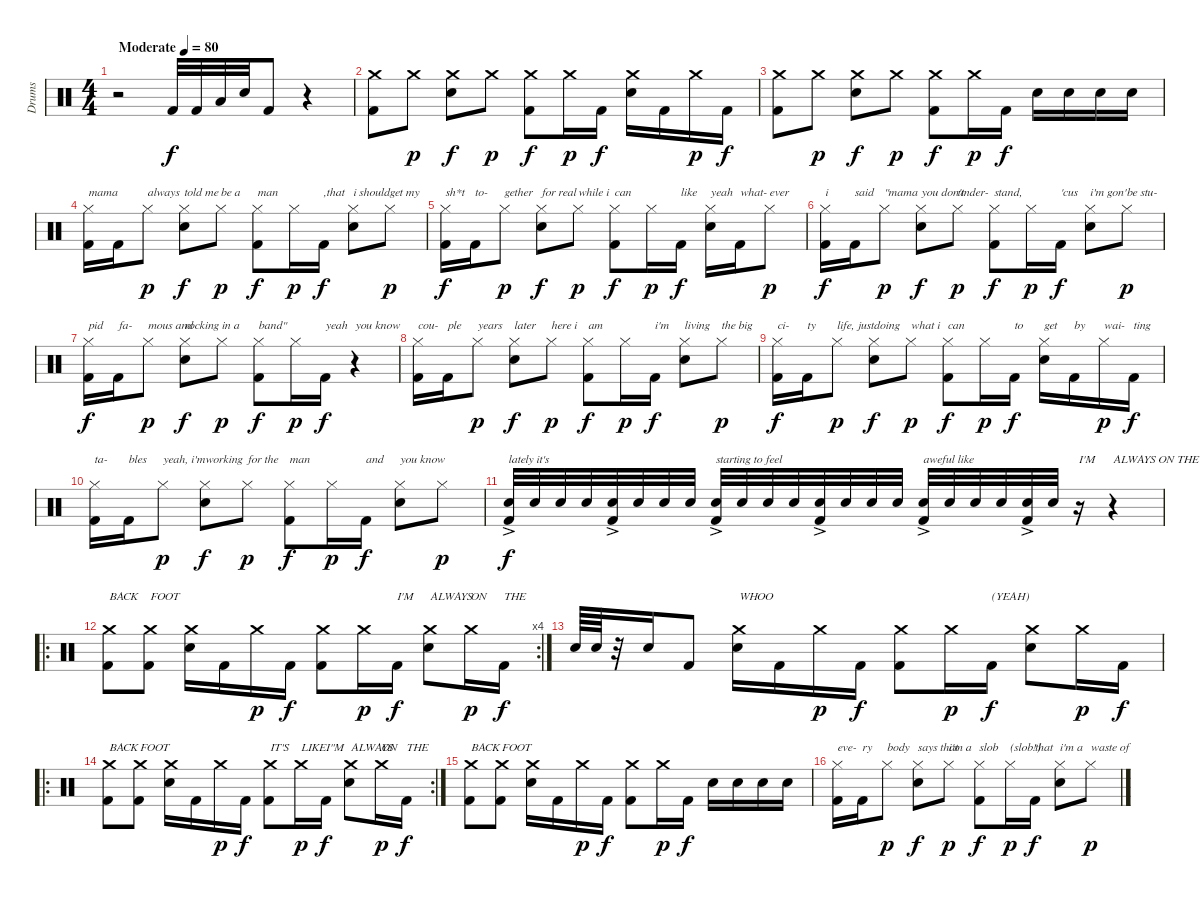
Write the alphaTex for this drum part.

\track ("Drums" "Drums") {instrument percussion}
\staff {score}
\articulation defaults
\ts (4 4)
\tempo (80 "Moderate")
\clef neutral
\ks c
r.2{dy f} "Kick (hit) 2".32 "Kick (hit) 2".32 "Low Floor Tom (hit)".32 "Snare (hit) 2".32 "Kick (hit) 2".8 r.4 |
("Crash medium (hit)" "Kick (hit) 2").8 "Crash medium (hit)".8{dy p} ("Crash medium (hit)" "Snare (hit) 2").8{dy f} "Crash medium (hit)".8{dy p} ("Crash medium (hit)" "Kick (hit) 2").8{dy f} "Crash medium (hit)".16{dy p} "Kick (hit) 2".16{dy f} ("Crash medium (hit)" "Snare (hit) 2").16 "Kick (hit) 2".16 "Crash medium (hit)".16{dy p} "Kick (hit) 2".16{dy f} |
("Crash medium (hit)" "Kick (hit) 2").8 "Crash medium (hit)".8{dy p} ("Crash medium (hit)" "Snare (hit) 2").8{dy f} "Crash medium (hit)".8{dy p} ("Crash medium (hit)" "Kick (hit) 2").8{dy f} "Crash medium (hit)".16{dy p} "Kick (hit) 2".16{dy f} "Snare (hit) 2".16 "Snare (hit) 2".16 "Snare (hit) 2".16 "Snare (hit) 2".16 |
("Hi-Hat (closed)" "Kick (hit) 2").16{txt "mama"} "Kick (hit) 2".16 "Hi-Hat (closed)".8{txt "always" dy p} ("Hi-Hat (closed)" "Snare (hit) 2").8{txt "told me" dy f} "Hi-Hat (closed)".8{txt "be a" dy p} ("Hi-Hat (closed)" "Kick (hit) 2").8{txt "man" dy f} "Hi-Hat (closed)".16{dy p} "Kick (hit) 2".16{txt ",that" dy f} ("Hi-Hat (closed)" "Snare (hit) 2").8{txt "i should"} "Hi-Hat (closed)".8{txt "get my" dy p} |
("Hi-Hat (closed)" "Kick (hit) 2").16{txt "sh*t" dy f} "Kick (hit) 2".16{txt "to-"} "Hi-Hat (closed)".8{txt "gether" dy p} ("Hi-Hat (closed)" "Snare (hit) 2").8{txt "for real" dy f} "Hi-Hat (closed)".8{txt "while i" dy p} ("Hi-Hat (closed)" "Kick (hit) 2").8{txt "can" dy f} "Hi-Hat (closed)".16{dy p} "Kick (hit) 2".16{txt "like" dy f} ("Hi-Hat (closed)" "Snare (hit) 2").16{txt "yeah"} "Kick (hit) 2".16{txt "what-"} "Hi-Hat (closed)".8{txt "ever" dy p} |
("Hi-Hat (closed)" "Kick (hit) 2").16{txt "i" dy f} "Kick (hit) 2".16{txt "said"} "Hi-Hat (closed)".8{txt "\"mama" dy p} ("Hi-Hat (closed)" "Snare (hit) 2").8{txt "you don't" dy f} "Hi-Hat (closed)".8{txt "under-" dy p} ("Hi-Hat (closed)" "Kick (hit) 2").8{txt "stand," dy f} "Hi-Hat (closed)".16{dy p} "Kick (hit) 2".16{txt "'cus" dy f} ("Hi-Hat (closed)" "Snare (hit) 2").8{txt "i'm gon'"} "Hi-Hat (closed)".8{txt "be stu-" dy p} |
("Hi-Hat (closed)" "Kick (hit) 2").16{txt "pid" dy f} "Kick (hit) 2".16{txt "fa-"} "Hi-Hat (closed)".8{txt "mous and" dy p} ("Hi-Hat (closed)" "Snare (hit) 2").8{txt "rocking" dy f} "Hi-Hat (closed)".8{txt "in a" dy p} ("Hi-Hat (closed)" "Kick (hit) 2").8{txt "band\"" dy f} "Hi-Hat (closed)".16{dy p} "Kick (hit) 2".16{txt "yeah" dy f} r.4{txt "you know"} |
("Hi-Hat (closed)" "Kick (hit) 2").16{txt "cou-"} "Kick (hit) 2".16{txt "ple"} "Hi-Hat (closed)".8{txt "years" dy p} ("Hi-Hat (closed)" "Snare (hit) 2").8{txt "later" dy f} "Hi-Hat (closed)".8{txt "here i" dy p} ("Hi-Hat (closed)" "Kick (hit) 2").8{txt "am" dy f} "Hi-Hat (closed)".16{dy p} "Kick (hit) 2".16{txt "i'm" dy f} ("Hi-Hat (closed)" "Snare (hit) 2").8{txt "living"} "Hi-Hat (closed)".8{txt "the big" dy p} |
("Hi-Hat (closed)" "Kick (hit) 2").16{txt "ci-" dy f} "Kick (hit) 2".16{txt "ty"} "Hi-Hat (closed)".8{txt "life, just" dy p} ("Hi-Hat (closed)" "Snare (hit) 2").8{txt "doing" dy f} "Hi-Hat (closed)".8{txt "what i" dy p} ("Hi-Hat (closed)" "Kick (hit) 2").8{txt "can" dy f} "Hi-Hat (closed)".16{dy p} "Kick (hit) 2".16{txt "to" dy f} ("Hi-Hat (closed)" "Snare (hit) 2").16{txt "get"} "Kick (hit) 2".16{txt "by"} "Hi-Hat (closed)".16{txt "wai-" dy p} "Kick (hit) 2".16{txt "ting" dy f} |
("Hi-Hat (closed)" "Kick (hit) 2").16{txt "ta-"} "Kick (hit) 2".16{txt "bles"} "Hi-Hat (closed)".8{txt "yeah, i'm" dy p} ("Hi-Hat (closed)" "Snare (hit) 2").8{txt "working" dy f} "Hi-Hat (closed)".8{txt "for the" dy p} ("Hi-Hat (closed)" "Kick (hit) 2").8{txt "man" dy f} "Hi-Hat (closed)".16{dy p} "Kick (hit) 2".16{txt "and" dy f} ("Hi-Hat (closed)" "Snare (hit) 2").8{txt "you know"} "Hi-Hat (closed)".8{dy p} |
("Snare (hit) 2"{ac} "Kick (hit) 2").32{txt "lately it's" dy f} "Snare (hit) 2".32 "Snare (hit) 2".32 "Snare (hit) 2".32 ("Snare (hit) 2"{ac} "Kick (hit) 2").32 "Snare (hit) 2".32 "Snare (hit) 2".32 "Snare (hit) 2".32 ("Snare (hit) 2"{ac} "Kick (hit) 2").32{txt "starting to feel"} "Snare (hit) 2".32 "Snare (hit) 2".32 "Snare (hit) 2".32 ("Snare (hit) 2"{ac} "Kick (hit) 2").32 "Snare (hit) 2".32 "Snare (hit) 2".32 "Snare (hit) 2".32 ("Snare (hit) 2"{ac} "Kick (hit) 2").32{txt "aweful like"} "Snare (hit) 2".32 "Snare (hit) 2".32 "Snare (hit) 2".32 ("Snare (hit) 2"{ac} "Kick (hit) 2").32 "Snare (hit) 2".32 r.16{txt "I'M"} r.4{txt "ALWAYS ON THE"} |
\ro
\rc 4
("Crash medium (hit)" "Kick (hit) 2").8{txt "BACK"} ("Crash medium (hit)" "Kick (hit) 2").8{txt "FOOT"} ("Crash medium (hit)" "Snare (hit) 2").16 "Kick (hit) 2".16 "Crash medium (hit)".16{dy p} "Kick (hit) 2".16{dy f} ("Crash medium (hit)" "Kick (hit) 2").8 "Crash medium (hit)".16{dy p} "Kick (hit) 2".16{txt "I'M" dy f} ("Crash medium (hit)" "Snare (hit) 2").8{txt "ALWAYS"} "Crash medium (hit)".16{txt "ON" dy p} "Kick (hit) 2".16{txt "THE" dy f} |
"Snare (hit) 2".64 "Snare (hit) 2".64 r.32 "Snare (hit) 2".16 "Kick (hit) 2".8 ("Crash medium (hit)" "Snare (hit) 2").16{txt "WHOO"} "Kick (hit) 2".16 "Crash medium (hit)".16{dy p} "Kick (hit) 2".16{dy f} ("Crash medium (hit)" "Kick (hit) 2").8 "Crash medium (hit)".16{dy p} "Kick (hit) 2".16{txt "(YEAH)" dy f} ("Crash medium (hit)" "Snare (hit) 2").8 "Crash medium (hit)".16{dy p} "Kick (hit) 2".16{dy f} |
\ro
\rc 2
("Crash medium (hit)" "Kick (hit) 2").8{txt "BACK"} ("Crash medium (hit)" "Kick (hit) 2").8{txt "FOOT"} ("Crash medium (hit)" "Snare (hit) 2").16 "Kick (hit) 2".16 "Crash medium (hit)".16{dy p} "Kick (hit) 2".16{dy f} ("Crash medium (hit)" "Kick (hit) 2").8{txt "IT'S"} "Crash medium (hit)".16{txt "LIKE" dy p} "Kick (hit) 2".16{txt "I\"M" dy f} ("Crash medium (hit)" "Snare (hit) 2").8{txt "ALWAYS"} "Crash medium (hit)".16{txt "ON" dy p} "Kick (hit) 2".16{txt "THE" dy f} |
("Crash medium (hit)" "Kick (hit) 2").8{txt "BACK"} ("Crash medium (hit)" "Kick (hit) 2").8{txt "FOOT"} ("Crash medium (hit)" "Snare (hit) 2").16 "Kick (hit) 2".16 "Crash medium (hit)".16{dy p} "Kick (hit) 2".16{dy f} ("Crash medium (hit)" "Kick (hit) 2").8 "Crash medium (hit)".16{dy p} "Kick (hit) 2".16{dy f} "Snare (hit) 2".16 "Snare (hit) 2".16 "Snare (hit) 2".16 "Snare (hit) 2".16 |
("Hi-Hat (closed)" "Kick (hit) 2").16{txt "eve-"} "Kick (hit) 2".16{txt "ry"} "Hi-Hat (closed)".8{txt "body" dy p} ("Hi-Hat (closed)" "Snare (hit) 2").8{txt "says that" dy f} "Hi-Hat (closed)".8{txt "i'm a" dy p} ("Hi-Hat (closed)" "Kick (hit) 2").8{txt "slob" dy f} "Hi-Hat (closed)".16{txt "(slob!)" dy p} "Kick (hit) 2".16{txt "that" dy f} ("Hi-Hat (closed)" "Snare (hit) 2").8{txt "i'm a"} "Hi-Hat (closed)".8{txt "waste of" dy p}
